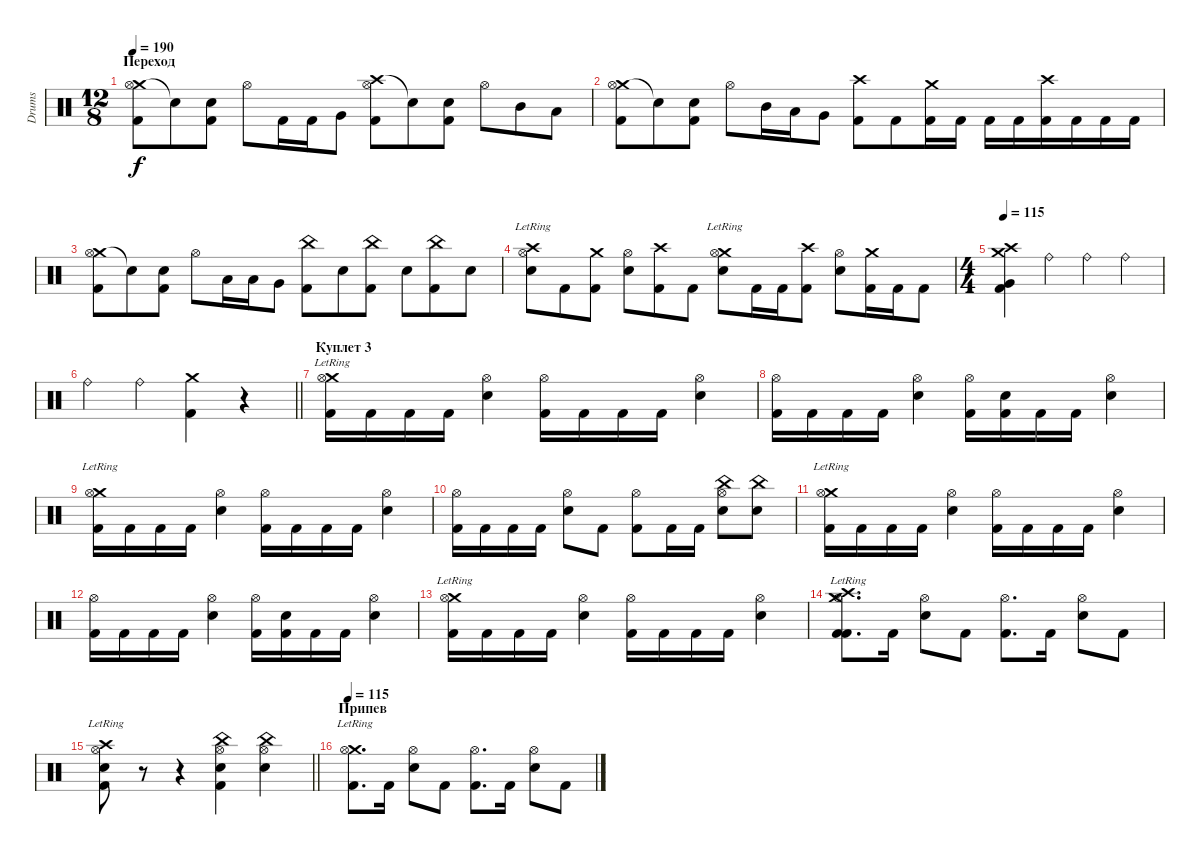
\track ("Drums" "Drums") {instrument percussion}
\staff {score}
\articulation defaults
\ts (12 8)
\section ("" "Переход")
\tempo 190
\clef neutral
\ks c
("Crash medium (hit)" "Kick (hit) 2" "Hi-Hat (open)").8{dy f} "Snare (hit)"{t}.8 ("Electric Snare (hit)" "Kick (hit) 2").8 "Hi-Hat (open)".8 "Kick (hit) 2".16 "Kick (hit) 2".16 "Very Low Tom (hit)".8 ("Crash high (hit)" "Kick (hit) 2" "Hi-Hat (open)").8 "Snare (hit)"{t}.8 ("Electric Snare (hit)" "Kick (hit) 2").8 "Hi-Hat (open)".8 "Mid Tom (hit)".8 "Low Tom (hit)".8 |
("Crash medium (hit)" "Kick (hit) 2" "Hi-Hat (open)").8 "Snare (hit)"{t}.8 ("Electric Snare (hit)" "Kick (hit) 2").8 "Hi-Hat (open)".8 "Mid Tom (hit)".16 "Low Tom (hit)".16 "Very Low Tom (hit)".8 ("Crash high (hit)" "Kick (hit) 2").8 "Kick (hit) 2".8 ("Crash medium (hit)" "Kick (hit) 2").16 "Kick (hit) 2".16 "Kick (hit) 2".16 "Kick (hit) 2".16 ("Crash high (hit)" "Kick (hit) 2").16 "Kick (hit) 2".16 "Kick (hit) 2".16 "Kick (hit) 2".16 |
("Crash medium (hit)" "Kick (hit) 2" "Hi-Hat (open)").8 "Snare (hit)"{t}.8 ("Electric Snare (hit)" "Kick (hit) 2").8 "Hi-Hat (open)".8 "Low Tom (hit)".16 "Low Tom (hit)".16 "Very Low Tom (hit)".8 ("China (hit)" "Kick (hit) 2").8 "Electric Snare (hit)".8 ("China (hit)" "Kick (hit) 2").8 "Electric Snare (hit)".8 ("China (hit)" "Kick (hit) 2").8 "Electric Snare (hit)".8 |
("Crash high (hit)"{lr} "Electric Snare (hit)" "Hi-Hat (open)").8 "Kick (hit) 2".8 ("Crash medium (hit)" "Kick (hit) 2").8 ("Electric Snare (hit)" "Hi-Hat (open)").8 ("Crash high (hit)" "Kick (hit) 2").8 "Kick (hit) 2".8 ("Crash medium (hit)"{lr} "Electric Snare (hit)" "Hi-Hat (open)").8 "Kick (hit) 2".16 "Kick (hit) 2".16 ("Crash high (hit)" "Kick (hit) 2").8 ("Electric Snare (hit)" "Hi-Hat (open)").8 ("Crash medium (hit)" "Kick (hit) 2").16 "Kick (hit) 2".16 "Kick (hit) 2".8 |
\ts (4 4)
\tempo 115
("Crash high (hit)" "Crash medium (hit)" "Kick (hit) 2" "Very Low Tom (hit)").4 "Ride (bell)".4 "Ride (bell)".4 "Ride (bell)".4 |
\barLineRight lightlight "Ride (bell)".4 "Ride (bell)".4
("Crash medium (hit)" "Kick (hit) 2").4 r.4 |
\section ("" "Куплет 3")
("Crash medium (hit)"{lr} "Kick (hit) 2" "Hi-Hat (open)").16 "Kick (hit) 2".16 "Kick (hit) 2".16 "Kick (hit) 2".16 ("Electric Snare (hit)" "Hi-Hat (open)").4 ("Kick (hit) 2" "Hi-Hat (open)").16 "Kick (hit) 2".16 "Kick (hit) 2".16 "Kick (hit) 2".16 ("Electric Snare (hit)" "Hi-Hat (open)").4 |
("Kick (hit) 2" "Hi-Hat (open)").16 "Kick (hit) 2".16 "Kick (hit) 2".16 "Kick (hit) 2".16 ("Electric Snare (hit)" "Hi-Hat (open)").4 ("Kick (hit) 2" "Hi-Hat (open)").16 ("Electric Snare (hit)" "Kick (hit) 2").16 "Kick (hit) 2".16 "Kick (hit) 2".16 ("Electric Snare (hit)" "Hi-Hat (open)").4 |
("Crash medium (hit)"{lr} "Kick (hit) 2" "Hi-Hat (open)").16 "Kick (hit) 2".16 "Kick (hit) 2".16 "Kick (hit) 2".16 ("Electric Snare (hit)" "Hi-Hat (open)").4 ("Kick (hit) 2" "Hi-Hat (open)").16 "Kick (hit) 2".16 "Kick (hit) 2".16 "Kick (hit) 2".16 ("Electric Snare (hit)" "Hi-Hat (open)").4 |
("Kick (hit) 2" "Hi-Hat (open)").16 "Kick (hit) 2".16 "Kick (hit) 2".16 "Kick (hit) 2".16 ("Electric Snare (hit)" "Hi-Hat (open)").8 "Kick (hit) 2".8 ("Kick (hit) 2" "Hi-Hat (open)").8 "Kick (hit) 2".16 "Kick (hit) 2".16 ("China (hit)" "Electric Snare (hit)" "Hi-Hat (open)").8 ("China (hit)" "Electric Snare (hit)").8 |
("Crash medium (hit)"{lr} "Kick (hit) 2" "Hi-Hat (open)").16 "Kick (hit) 2".16 "Kick (hit) 2".16 "Kick (hit) 2".16 ("Electric Snare (hit)" "Hi-Hat (open)").4 ("Kick (hit) 2" "Hi-Hat (open)").16 "Kick (hit) 2".16 "Kick (hit) 2".16 "Kick (hit) 2".16 ("Electric Snare (hit)" "Hi-Hat (open)").4 |
("Kick (hit) 2" "Hi-Hat (open)").16 "Kick (hit) 2".16 "Kick (hit) 2".16 "Kick (hit) 2".16 ("Electric Snare (hit)" "Hi-Hat (open)").4 ("Kick (hit) 2" "Hi-Hat (open)").16 ("Electric Snare (hit)" "Kick (hit) 2").16 "Kick (hit) 2".16 "Kick (hit) 2".16 ("Electric Snare (hit)" "Hi-Hat (open)").4 |
("Crash medium (hit)"{lr} "Kick (hit) 2" "Hi-Hat (open)").16 "Kick (hit) 2".16 "Kick (hit) 2".16 "Kick (hit) 2".16 ("Electric Snare (hit)" "Hi-Hat (open)").4 ("Kick (hit) 2" "Hi-Hat (open)").16 "Kick (hit) 2".16 "Kick (hit) 2".16 "Kick (hit) 2".16 ("Electric Snare (hit)" "Hi-Hat (open)").4 |
("Crash medium (hit)"{lr} "Crash high (hit)"{lr} "Kick (hit) 2" "Kick (hit) 2" "Hi-Hat (open)").8{d} "Kick (hit) 2".16 ("Electric Snare (hit)" "Hi-Hat (open)").8 "Kick (hit) 2".8 ("Kick (hit) 2" "Hi-Hat (open)").8{d} "Kick (hit) 2".16 ("Electric Snare (hit)" "Hi-Hat (open)").8 "Kick (hit) 2".8 |
\barLineRight lightlight
("Crash high (hit)"{lr} "Electric Snare (hit)" "Kick (hit) 2" "Hi-Hat (open)").8 r.8 r.4 ("China (hit)" "Electric Snare (hit)" "Kick (hit) 2" "Hi-Hat (open)").4 ("China (hit)" "Electric Snare (hit)" "Hi-Hat (open)").4 |
\section ("" "Припев")
\tempo 115
("Crash medium (hit)"{lr} "Kick (hit) 2" "Hi-Hat (open)").8{d} "Kick (hit) 2".16 ("Electric Snare (hit)" "Hi-Hat (open)").8 "Kick (hit) 2".8 ("Kick (hit) 2" "Hi-Hat (open)").8{d} "Kick (hit) 2".16 ("Electric Snare (hit)" "Hi-Hat (open)").8 "Kick (hit) 2".8
